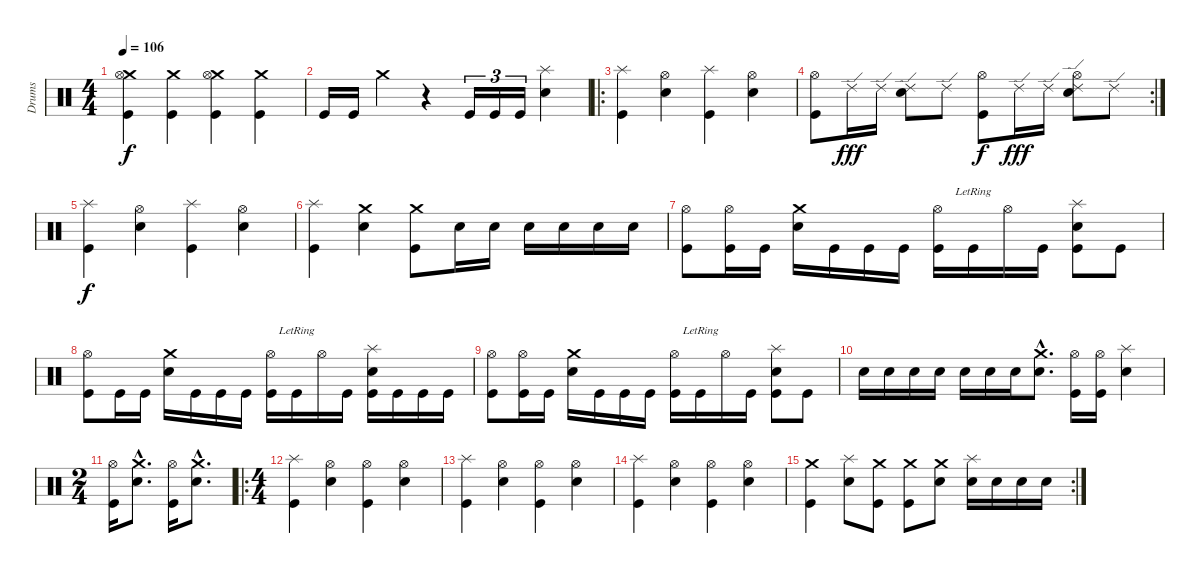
\track ("Drums" "Drums") {instrument percussion}
\staff {score}
\articulation defaults
\ts (4 4)
\tempo 106
\clef neutral
\ks c
("Kick (hit)" "Crash medium (hit)" "Hi-Hat (open)").4{dy f} ("Kick (hit)" "Crash medium (hit)").4 ("Kick (hit)" "Crash medium (hit)" "Hi-Hat (open)").4 ("Kick (hit)" "Crash medium (hit)").4 |
"Kick (hit)".16 "Kick (hit)".16 "Crash medium (hit)".4 r.4 "Kick (hit)".16{tu (3 2)} "Kick (hit)".16{tu (3 2)} "Kick (hit)".16{tu (3 2)} ("Snare (hit) 2" "Splash (hit)").4 |
\ro
("Kick (hit)" "Splash (hit)").4 ("Snare (hit) 2" "Hi-Hat (open)").4 ("Kick (hit)" "Splash (hit)").4 ("Snare (hit) 2" "Hi-Hat (open)").4 |
\rc 2
("Kick (hit)" "Hi-Hat (open)").8 "Ride (edge) 2".16{dy fff} "Ride (edge) 2".16 ("Snare (hit) 2" "Ride (edge) 2").8 "Ride (edge) 2".8 ("Kick (hit)" "Hi-Hat (open)").8{dy f} "Ride (edge) 2".16{dy fff} "Ride (edge) 2".16 ("Snare (hit) 2" "Ride (edge) 2" "Hi-Hat (open)").8 "Ride (edge) 2".8 |
("Kick (hit)" "Splash (hit)").4{dy f} ("Snare (hit) 2" "Hi-Hat (open)").4 ("Kick (hit)" "Splash (hit)").4 ("Snare (hit) 2" "Hi-Hat (open)").4 |
("Kick (hit)" "Splash (hit)").4 ("Snare (hit) 2" "Crash medium (hit)").4 ("Kick (hit)" "Crash medium (hit)").8 "Snare (hit) 2".16 "Snare (hit) 2".16 "Snare (hit) 2".16 "Snare (hit) 2".16 "Snare (hit) 2".16 "Snare (hit) 2".16 |
("Kick (hit)" "Hi-Hat (open)").8 ("Kick (hit)" "Hi-Hat (open)").16 "Kick (hit)".16 ("Snare (hit) 2" "Crash medium (hit)").16 "Kick (hit)".16 "Kick (hit)".16 "Kick (hit)".16 ("Kick (hit)" "Hi-Hat (open)").16 "Kick (hit)"{lr}.16 "Hi-Hat (open)".16 "Kick (hit)".16 ("Kick (hit)" "Snare (hit) 2" "Splash (hit)").8 "Kick (hit)".8 |
("Kick (hit)" "Hi-Hat (open)").8 "Kick (hit)".16 "Kick (hit)".16 ("Snare (hit) 2" "Crash medium (hit)").16 "Kick (hit)".16 "Kick (hit)".16 "Kick (hit)".16 ("Kick (hit)" "Hi-Hat (open)").16 "Kick (hit)"{lr}.16 "Hi-Hat (open)".16 "Kick (hit)".16 ("Kick (hit)" "Snare (hit) 2" "Splash (hit)").16 "Kick (hit)".16 "Kick (hit)".16 "Kick (hit)".16 |
("Kick (hit)" "Hi-Hat (open)").8 ("Kick (hit)" "Hi-Hat (open)").16 "Kick (hit)".16 ("Snare (hit) 2" "Crash medium (hit)").16 "Kick (hit)".16 "Kick (hit)".16 "Kick (hit)".16 ("Kick (hit)" "Hi-Hat (open)").16 "Kick (hit)"{lr}.16 "Hi-Hat (open)".16 "Kick (hit)".16 ("Kick (hit)" "Snare (hit) 2" "Splash (hit)").8 "Kick (hit)".8 |
"Snare (hit) 2".16 "Snare (hit) 2".16 "Snare (hit) 2".16 "Snare (hit) 2".16 "Snare (hit) 2".16 "Snare (hit) 2".16 "Snare (hit) 2".16 ("Snare (hit) 2"{hac} "Crash medium (hit)"{hac}).8{d} ("Kick (hit)" "Hi-Hat (open)").16 ("Kick (hit)" "Hi-Hat (open)").16 ("Snare (hit) 2" "Splash (hit)").4 |
\ts (2 4)
("Kick (hit)" "Hi-Hat (open)").16 ("Snare (hit) 2"{hac} "Crash medium (hit)"{hac}).8{d} ("Kick (hit)" "Hi-Hat (open)").16 ("Snare (hit) 2"{hac} "Crash medium (hit)"{hac}).8{d} |
\ro
\ts (4 4)
("Kick (hit)" "Splash (hit)").4 ("Snare (hit) 2" "Hi-Hat (open)").4 ("Kick (hit)" "Hi-Hat (open)").4 ("Snare (hit) 2" "Hi-Hat (open)").4 |
("Kick (hit)" "Splash (hit)").4 ("Snare (hit) 2" "Hi-Hat (open)").4 ("Kick (hit)" "Hi-Hat (open)").4 ("Snare (hit) 2" "Hi-Hat (open)").4 |
("Kick (hit)" "Splash (hit)").4 ("Snare (hit) 2" "Hi-Hat (open)").4 ("Kick (hit)" "Hi-Hat (open)").4 ("Snare (hit) 2" "Hi-Hat (open)").4 |
\rc 2
("Kick (hit)" "Crash medium (hit)").4 ("Snare (hit) 2" "Splash (hit)").8 ("Kick (hit)" "Crash medium (hit)").8 ("Kick (hit)" "Crash medium (hit)").8 ("Crash medium (hit)" "Snare (hit) 2").8 ("Snare (hit) 2" "Splash (hit)").16 "Snare (hit) 2".16 "Snare (hit) 2".16 "Snare (hit) 2".16
